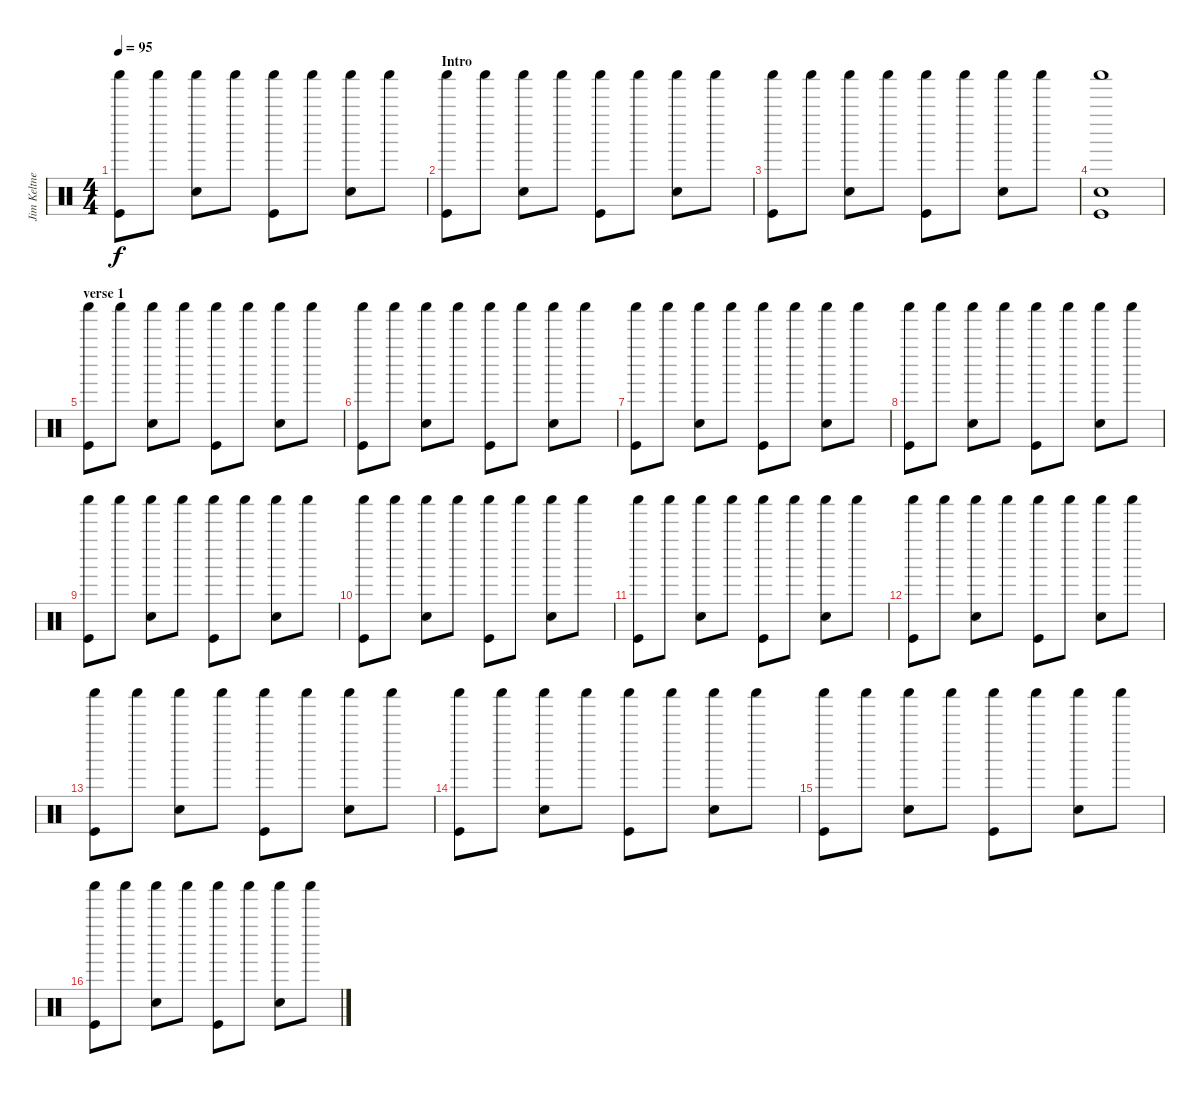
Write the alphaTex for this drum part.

\track ("Jim Keltner" "Jim Keltne") {instrument percussion}
\staff {score}
\articulation defaults
\ts (4 4)
\tempo 95
\clef neutral
\ks c
("Shaker (hit)" "Kick (hit)").8{dy f} "Shaker (hit)".8 ("Shaker (hit)" "Snare (hit) 2").8 "Shaker (hit)".8 ("Shaker (hit)" "Kick (hit)").8 "Shaker (hit)".8 ("Shaker (hit)" "Snare (hit) 2").8 "Shaker (hit)".8 |
\section ("" "Intro")
("Shaker (hit)" "Kick (hit)").8 "Shaker (hit)".8 ("Shaker (hit)" "Snare (hit) 2").8 "Shaker (hit)".8 ("Shaker (hit)" "Kick (hit)").8 "Shaker (hit)".8 ("Shaker (hit)" "Snare (hit) 2").8 "Shaker (hit)".8 |
("Shaker (hit)" "Kick (hit)").8 "Shaker (hit)".8 ("Shaker (hit)" "Snare (hit) 2").8 "Shaker (hit)".8 ("Shaker (hit)" "Kick (hit)").8 "Shaker (hit)".8 ("Shaker (hit)" "Snare (hit) 2").8 "Shaker (hit)".8 |
("Shaker (hit)" "Snare (hit) 2" "Kick (hit)").1 |
\section ("" "verse 1")
("Shaker (hit)" "Kick (hit)").8 "Shaker (hit)".8 ("Shaker (hit)" "Snare (hit) 2").8 "Shaker (hit)".8 ("Shaker (hit)" "Kick (hit)").8 "Shaker (hit)".8 ("Shaker (hit)" "Snare (hit) 2").8 "Shaker (hit)".8 |
("Shaker (hit)" "Kick (hit)").8 "Shaker (hit)".8 ("Shaker (hit)" "Snare (hit) 2").8 "Shaker (hit)".8 ("Shaker (hit)" "Kick (hit)").8 "Shaker (hit)".8 ("Shaker (hit)" "Snare (hit) 2").8 "Shaker (hit)".8 |
("Shaker (hit)" "Kick (hit)").8 "Shaker (hit)".8 ("Shaker (hit)" "Snare (hit) 2").8 "Shaker (hit)".8 ("Shaker (hit)" "Kick (hit)").8 "Shaker (hit)".8 ("Shaker (hit)" "Snare (hit) 2").8 "Shaker (hit)".8 |
("Shaker (hit)" "Kick (hit)").8 "Shaker (hit)".8 ("Shaker (hit)" "Snare (hit) 2").8 "Shaker (hit)".8 ("Shaker (hit)" "Kick (hit)").8 "Shaker (hit)".8 ("Shaker (hit)" "Snare (hit) 2").8 "Shaker (hit)".8 |
("Shaker (hit)" "Kick (hit)").8 "Shaker (hit)".8 ("Shaker (hit)" "Snare (hit) 2").8 "Shaker (hit)".8 ("Shaker (hit)" "Kick (hit)").8 "Shaker (hit)".8 ("Shaker (hit)" "Snare (hit) 2").8 "Shaker (hit)".8 |
("Shaker (hit)" "Kick (hit)").8 "Shaker (hit)".8 ("Shaker (hit)" "Snare (hit) 2").8 "Shaker (hit)".8 ("Shaker (hit)" "Kick (hit)").8 "Shaker (hit)".8 ("Shaker (hit)" "Snare (hit) 2").8 "Shaker (hit)".8 |
("Shaker (hit)" "Kick (hit)").8 "Shaker (hit)".8 ("Shaker (hit)" "Snare (hit) 2").8 "Shaker (hit)".8 ("Shaker (hit)" "Kick (hit)").8 "Shaker (hit)".8 ("Shaker (hit)" "Snare (hit) 2").8 "Shaker (hit)".8 |
("Shaker (hit)" "Kick (hit)").8 "Shaker (hit)".8 ("Shaker (hit)" "Snare (hit) 2").8 "Shaker (hit)".8 ("Shaker (hit)" "Kick (hit)").8 "Shaker (hit)".8 ("Shaker (hit)" "Snare (hit) 2").8 "Shaker (hit)".8 |
("Shaker (hit)" "Kick (hit)").8 "Shaker (hit)".8 ("Shaker (hit)" "Snare (hit) 2").8 "Shaker (hit)".8 ("Shaker (hit)" "Kick (hit)").8 "Shaker (hit)".8 ("Shaker (hit)" "Snare (hit) 2").8 "Shaker (hit)".8 |
("Shaker (hit)" "Kick (hit)").8 "Shaker (hit)".8 ("Shaker (hit)" "Snare (hit) 2").8 "Shaker (hit)".8 ("Shaker (hit)" "Kick (hit)").8 "Shaker (hit)".8 ("Shaker (hit)" "Snare (hit) 2").8 "Shaker (hit)".8 |
("Shaker (hit)" "Kick (hit)").8 "Shaker (hit)".8 ("Shaker (hit)" "Snare (hit) 2").8 "Shaker (hit)".8 ("Shaker (hit)" "Kick (hit)").8 "Shaker (hit)".8 ("Shaker (hit)" "Snare (hit) 2").8 "Shaker (hit)".8 |
("Shaker (hit)" "Kick (hit)").8 "Shaker (hit)".8 ("Shaker (hit)" "Snare (hit) 2").8 "Shaker (hit)".8 ("Shaker (hit)" "Kick (hit)").8 "Shaker (hit)".8 ("Shaker (hit)" "Snare (hit) 2").8 "Shaker (hit)".8
